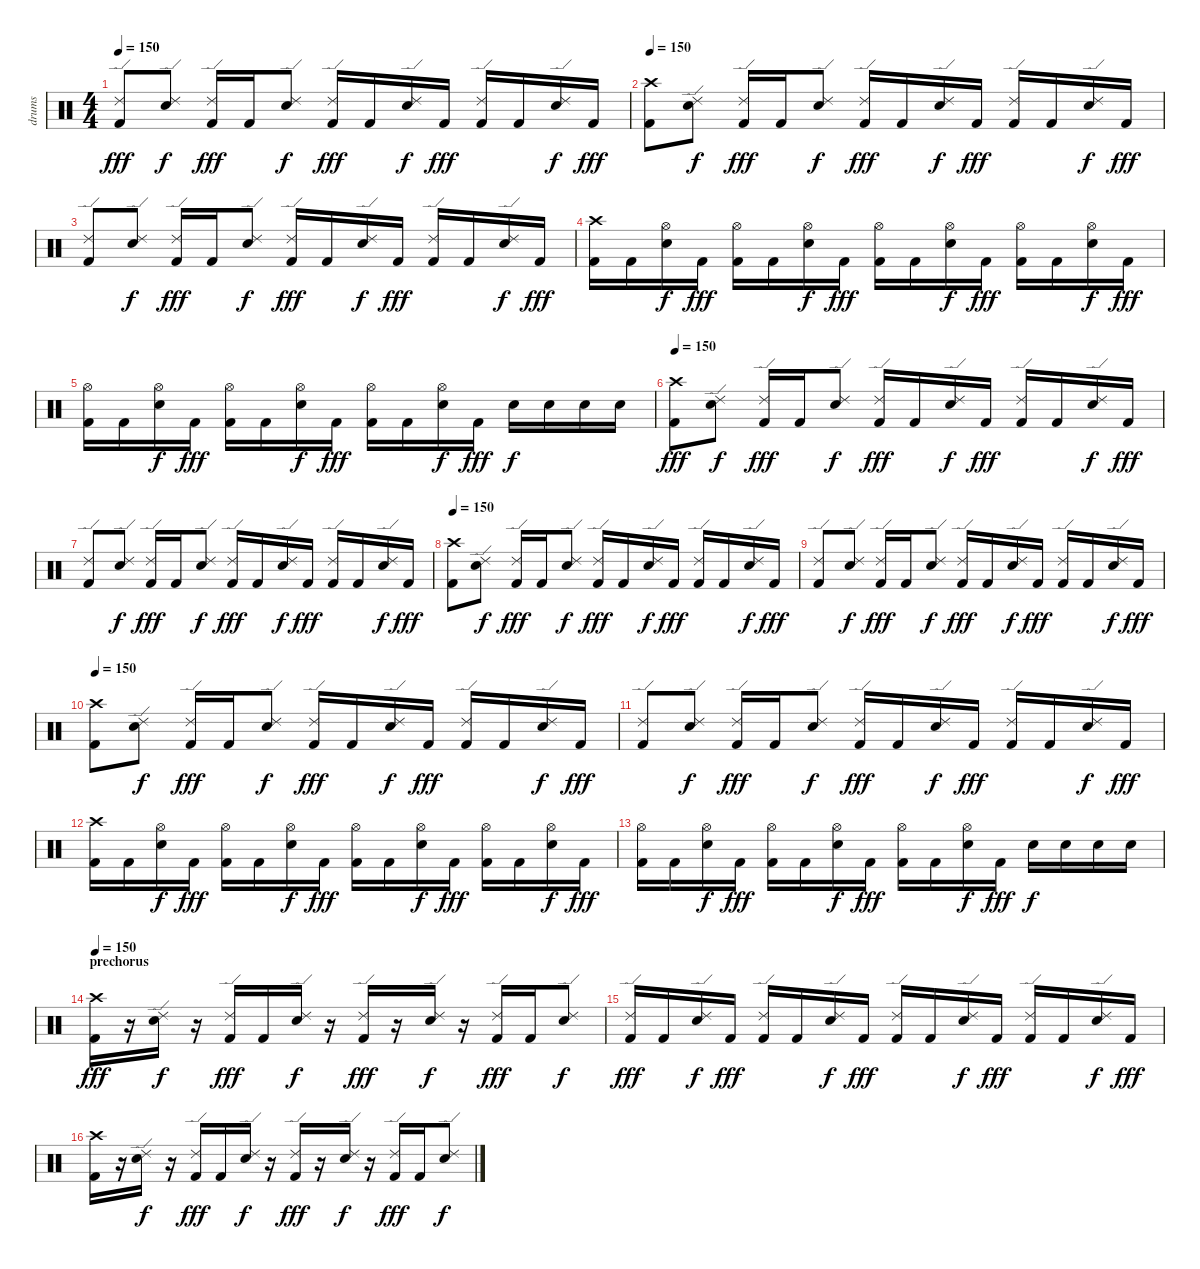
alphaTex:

\track ("drums" "drums") {instrument percussion}
\staff {score}
\articulation defaults
\ts (4 4)
\tempo 150
\clef neutral
\ks c
("Ride (edge) 2" "Kick (hit) 2").8{dy fff} ("Ride (edge) 2" "Snare (hit) 2").8{dy f} ("Ride (edge) 2" "Kick (hit) 2").16{dy fff} "Kick (hit) 2".16 ("Ride (edge) 2" "Snare (hit) 2").8{dy f} ("Ride (edge) 2" "Kick (hit) 2").16{dy fff} "Kick (hit) 2".16 ("Ride (edge) 2" "Snare (hit) 2").16{dy f} "Kick (hit) 2".16{dy fff} ("Ride (edge) 2" "Kick (hit) 2").16 "Kick (hit) 2".16 ("Ride (edge) 2" "Snare (hit) 2").16{dy f} "Kick (hit) 2".16{dy fff} |
\tempo 150
("Crash high (hit)" "Kick (hit) 2").8 ("Ride (edge) 2" "Snare (hit) 2").8{dy f} ("Ride (edge) 2" "Kick (hit) 2").16{dy fff} "Kick (hit) 2".16 ("Ride (edge) 2" "Snare (hit) 2").8{dy f} ("Ride (edge) 2" "Kick (hit) 2").16{dy fff} "Kick (hit) 2".16 ("Ride (edge) 2" "Snare (hit) 2").16{dy f} "Kick (hit) 2".16{dy fff} ("Ride (edge) 2" "Kick (hit) 2").16 "Kick (hit) 2".16 ("Ride (edge) 2" "Snare (hit) 2").16{dy f} "Kick (hit) 2".16{dy fff} |
("Ride (edge) 2" "Kick (hit) 2").8 ("Ride (edge) 2" "Snare (hit) 2").8{dy f} ("Ride (edge) 2" "Kick (hit) 2").16{dy fff} "Kick (hit) 2".16 ("Ride (edge) 2" "Snare (hit) 2").8{dy f} ("Ride (edge) 2" "Kick (hit) 2").16{dy fff} "Kick (hit) 2".16 ("Ride (edge) 2" "Snare (hit) 2").16{dy f} "Kick (hit) 2".16{dy fff} ("Ride (edge) 2" "Kick (hit) 2").16 "Kick (hit) 2".16 ("Ride (edge) 2" "Snare (hit) 2").16{dy f} "Kick (hit) 2".16{dy fff} |
("Crash high (hit)" "Kick (hit) 2").16 "Kick (hit) 2".16 ("Hi-Hat (open)" "Snare (hit) 2").16{dy f} "Kick (hit) 2".16{dy fff} ("Hi-Hat (open)" "Kick (hit) 2").16 "Kick (hit) 2".16 ("Hi-Hat (open)" "Snare (hit) 2").16{dy f} "Kick (hit) 2".16{dy fff} ("Hi-Hat (open)" "Kick (hit) 2").16 "Kick (hit) 2".16 ("Hi-Hat (open)" "Snare (hit) 2").16{dy f} "Kick (hit) 2".16{dy fff} ("Hi-Hat (open)" "Kick (hit) 2").16 "Kick (hit) 2".16 ("Hi-Hat (open)" "Snare (hit) 2").16{dy f} "Kick (hit) 2".16{dy fff} |
("Hi-Hat (open)" "Kick (hit) 2").16 "Kick (hit) 2".16 ("Hi-Hat (open)" "Snare (hit) 2").16{dy f} "Kick (hit) 2".16{dy fff} ("Hi-Hat (open)" "Kick (hit) 2").16 "Kick (hit) 2".16 ("Hi-Hat (open)" "Snare (hit) 2").16{dy f} "Kick (hit) 2".16{dy fff} ("Hi-Hat (open)" "Kick (hit) 2").16 "Kick (hit) 2".16 ("Hi-Hat (open)" "Snare (hit) 2").16{dy f} "Kick (hit) 2".16{dy fff} "Snare (hit) 2".16{dy f} "Snare (hit) 2".16 "Snare (hit) 2".16 "Snare (hit) 2".16 |
\tempo 150
("Crash high (hit)" "Kick (hit) 2").8{dy fff} ("Ride (edge) 2" "Snare (hit) 2").8{dy f} ("Ride (edge) 2" "Kick (hit) 2").16{dy fff} "Kick (hit) 2".16 ("Ride (edge) 2" "Snare (hit) 2").8{dy f} ("Ride (edge) 2" "Kick (hit) 2").16{dy fff} "Kick (hit) 2".16 ("Ride (edge) 2" "Snare (hit) 2").16{dy f} "Kick (hit) 2".16{dy fff} ("Ride (edge) 2" "Kick (hit) 2").16 "Kick (hit) 2".16 ("Ride (edge) 2" "Snare (hit) 2").16{dy f} "Kick (hit) 2".16{dy fff} |
("Ride (edge) 2" "Kick (hit) 2").8 ("Ride (edge) 2" "Snare (hit) 2").8{dy f} ("Ride (edge) 2" "Kick (hit) 2").16{dy fff} "Kick (hit) 2".16 ("Ride (edge) 2" "Snare (hit) 2").8{dy f} ("Ride (edge) 2" "Kick (hit) 2").16{dy fff} "Kick (hit) 2".16 ("Ride (edge) 2" "Snare (hit) 2").16{dy f} "Kick (hit) 2".16{dy fff} ("Ride (edge) 2" "Kick (hit) 2").16 "Kick (hit) 2".16 ("Ride (edge) 2" "Snare (hit) 2").16{dy f} "Kick (hit) 2".16{dy fff} |
\tempo 150
("Crash high (hit)" "Kick (hit) 2").8 ("Ride (edge) 2" "Snare (hit) 2").8{dy f} ("Ride (edge) 2" "Kick (hit) 2").16{dy fff} "Kick (hit) 2".16 ("Ride (edge) 2" "Snare (hit) 2").8{dy f} ("Ride (edge) 2" "Kick (hit) 2").16{dy fff} "Kick (hit) 2".16 ("Ride (edge) 2" "Snare (hit) 2").16{dy f} "Kick (hit) 2".16{dy fff} ("Ride (edge) 2" "Kick (hit) 2").16 "Kick (hit) 2".16 ("Ride (edge) 2" "Snare (hit) 2").16{dy f} "Kick (hit) 2".16{dy fff} |
("Ride (edge) 2" "Kick (hit) 2").8 ("Ride (edge) 2" "Snare (hit) 2").8{dy f} ("Ride (edge) 2" "Kick (hit) 2").16{dy fff} "Kick (hit) 2".16 ("Ride (edge) 2" "Snare (hit) 2").8{dy f} ("Ride (edge) 2" "Kick (hit) 2").16{dy fff} "Kick (hit) 2".16 ("Ride (edge) 2" "Snare (hit) 2").16{dy f} "Kick (hit) 2".16{dy fff} ("Ride (edge) 2" "Kick (hit) 2").16 "Kick (hit) 2".16 ("Ride (edge) 2" "Snare (hit) 2").16{dy f} "Kick (hit) 2".16{dy fff} |
\tempo 150
("Crash high (hit)" "Kick (hit) 2").8 ("Ride (edge) 2" "Snare (hit) 2").8{dy f} ("Ride (edge) 2" "Kick (hit) 2").16{dy fff} "Kick (hit) 2".16 ("Ride (edge) 2" "Snare (hit) 2").8{dy f} ("Ride (edge) 2" "Kick (hit) 2").16{dy fff} "Kick (hit) 2".16 ("Ride (edge) 2" "Snare (hit) 2").16{dy f} "Kick (hit) 2".16{dy fff} ("Ride (edge) 2" "Kick (hit) 2").16 "Kick (hit) 2".16 ("Ride (edge) 2" "Snare (hit) 2").16{dy f} "Kick (hit) 2".16{dy fff} |
("Ride (edge) 2" "Kick (hit) 2").8 ("Ride (edge) 2" "Snare (hit) 2").8{dy f} ("Ride (edge) 2" "Kick (hit) 2").16{dy fff} "Kick (hit) 2".16 ("Ride (edge) 2" "Snare (hit) 2").8{dy f} ("Ride (edge) 2" "Kick (hit) 2").16{dy fff} "Kick (hit) 2".16 ("Ride (edge) 2" "Snare (hit) 2").16{dy f} "Kick (hit) 2".16{dy fff} ("Ride (edge) 2" "Kick (hit) 2").16 "Kick (hit) 2".16 ("Ride (edge) 2" "Snare (hit) 2").16{dy f} "Kick (hit) 2".16{dy fff} |
("Crash high (hit)" "Kick (hit) 2").16 "Kick (hit) 2".16 ("Hi-Hat (open)" "Snare (hit) 2").16{dy f} "Kick (hit) 2".16{dy fff} ("Hi-Hat (open)" "Kick (hit) 2").16 "Kick (hit) 2".16 ("Hi-Hat (open)" "Snare (hit) 2").16{dy f} "Kick (hit) 2".16{dy fff} ("Hi-Hat (open)" "Kick (hit) 2").16 "Kick (hit) 2".16 ("Hi-Hat (open)" "Snare (hit) 2").16{dy f} "Kick (hit) 2".16{dy fff} ("Hi-Hat (open)" "Kick (hit) 2").16 "Kick (hit) 2".16 ("Hi-Hat (open)" "Snare (hit) 2").16{dy f} "Kick (hit) 2".16{dy fff} |
("Hi-Hat (open)" "Kick (hit) 2").16 "Kick (hit) 2".16 ("Hi-Hat (open)" "Snare (hit) 2").16{dy f} "Kick (hit) 2".16{dy fff} ("Hi-Hat (open)" "Kick (hit) 2").16 "Kick (hit) 2".16 ("Hi-Hat (open)" "Snare (hit) 2").16{dy f} "Kick (hit) 2".16{dy fff} ("Hi-Hat (open)" "Kick (hit) 2").16 "Kick (hit) 2".16 ("Hi-Hat (open)" "Snare (hit) 2").16{dy f} "Kick (hit) 2".16{dy fff} "Snare (hit) 2".16{dy f} "Snare (hit) 2".16 "Snare (hit) 2".16 "Snare (hit) 2".16 |
\section ("" "prechorus")
\tempo 150
("Crash high (hit)" "Kick (hit) 2").16{dy fff} r.16 ("Ride (edge) 2" "Snare (hit) 2").16{dy f} r.16 ("Ride (edge) 2" "Kick (hit) 2").16{dy fff} "Kick (hit) 2".16 ("Ride (edge) 2" "Snare (hit) 2").16{dy f} r.16 ("Ride (edge) 2" "Kick (hit) 2").16{dy fff} r.16 ("Ride (edge) 2" "Snare (hit) 2").16{dy f} r.16 ("Ride (edge) 2" "Kick (hit) 2").16{dy fff} "Kick (hit) 2".16 ("Ride (edge) 2" "Snare (hit) 2").8{dy f} |
("Ride (edge) 2" "Kick (hit) 2").16{dy fff} "Kick (hit) 2".16 ("Ride (edge) 2" "Snare (hit) 2").16{dy f} "Kick (hit) 2".16{dy fff} ("Ride (edge) 2" "Kick (hit) 2").16 "Kick (hit) 2".16 ("Ride (edge) 2" "Snare (hit) 2").16{dy f} "Kick (hit) 2".16{dy fff} ("Ride (edge) 2" "Kick (hit) 2").16 "Kick (hit) 2".16 ("Ride (edge) 2" "Snare (hit) 2").16{dy f} "Kick (hit) 2".16{dy fff} ("Ride (edge) 2" "Kick (hit) 2").16 "Kick (hit) 2".16 ("Ride (edge) 2" "Snare (hit) 2").16{dy f} "Kick (hit) 2".16{dy fff} |
("Crash high (hit)" "Kick (hit) 2").16 r.16 ("Ride (edge) 2" "Snare (hit) 2").16{dy f} r.16 ("Ride (edge) 2" "Kick (hit) 2").16{dy fff} "Kick (hit) 2".16 ("Ride (edge) 2" "Snare (hit) 2").16{dy f} r.16 ("Ride (edge) 2" "Kick (hit) 2").16{dy fff} r.16 ("Ride (edge) 2" "Snare (hit) 2").16{dy f} r.16 ("Ride (edge) 2" "Kick (hit) 2").16{dy fff} "Kick (hit) 2".16 ("Ride (edge) 2" "Snare (hit) 2").8{dy f}
